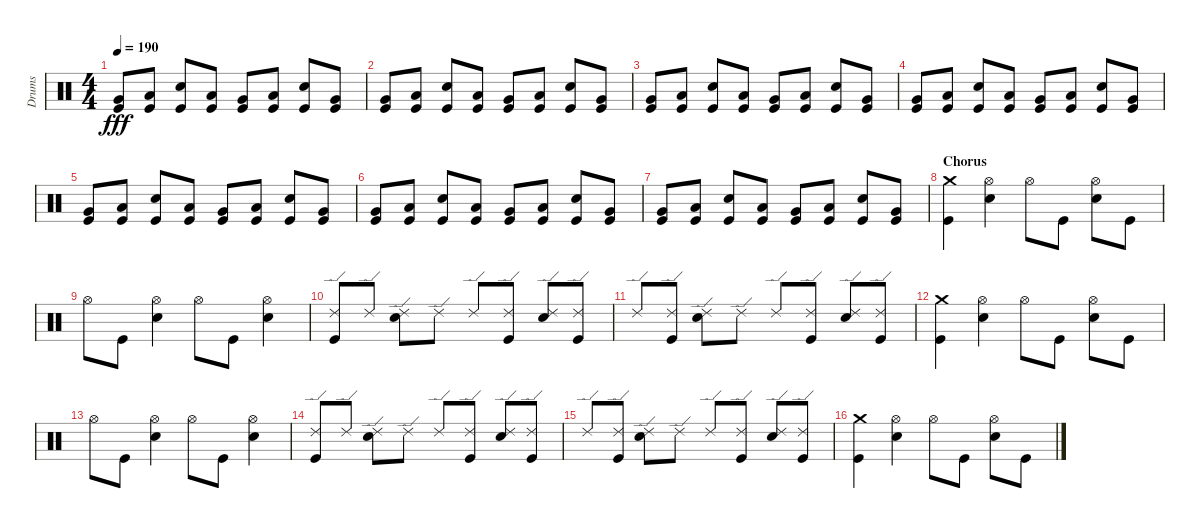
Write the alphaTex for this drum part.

\track ("Drums" "Drums") {instrument percussion}
\staff {score}
\articulation defaults
\ts (4 4)
\tempo 190
\clef neutral
\ks c
("Very Low Tom (hit)" "Kick (hit)").8{dy fff} ("Low Tom (hit)" "Kick (hit)").8 ("Snare (hit) 2" "Kick (hit)").8 ("Low Tom (hit)" "Kick (hit)").8 ("Very Low Tom (hit)" "Kick (hit)").8 ("Low Tom (hit)" "Kick (hit)").8 ("Snare (hit) 2" "Kick (hit)").8 ("Very Low Tom (hit)" "Kick (hit)").8 |
("Very Low Tom (hit)" "Kick (hit)").8 ("Low Tom (hit)" "Kick (hit)").8 ("Snare (hit) 2" "Kick (hit)").8 ("Low Tom (hit)" "Kick (hit)").8 ("Very Low Tom (hit)" "Kick (hit)").8 ("Low Tom (hit)" "Kick (hit)").8 ("Snare (hit) 2" "Kick (hit)").8 ("Very Low Tom (hit)" "Kick (hit)").8 |
("Very Low Tom (hit)" "Kick (hit)").8 ("Low Tom (hit)" "Kick (hit)").8 ("Snare (hit) 2" "Kick (hit)").8 ("Low Tom (hit)" "Kick (hit)").8 ("Very Low Tom (hit)" "Kick (hit)").8 ("Low Tom (hit)" "Kick (hit)").8 ("Snare (hit) 2" "Kick (hit)").8 ("Very Low Tom (hit)" "Kick (hit)").8 |
("Very Low Tom (hit)" "Kick (hit)").8 ("Low Tom (hit)" "Kick (hit)").8 ("Snare (hit) 2" "Kick (hit)").8 ("Low Tom (hit)" "Kick (hit)").8 ("Very Low Tom (hit)" "Kick (hit)").8 ("Low Tom (hit)" "Kick (hit)").8 ("Snare (hit) 2" "Kick (hit)").8 ("Very Low Tom (hit)" "Kick (hit)").8 |
("Very Low Tom (hit)" "Kick (hit)").8 ("Low Tom (hit)" "Kick (hit)").8 ("Snare (hit) 2" "Kick (hit)").8 ("Low Tom (hit)" "Kick (hit)").8 ("Very Low Tom (hit)" "Kick (hit)").8 ("Low Tom (hit)" "Kick (hit)").8 ("Snare (hit) 2" "Kick (hit)").8 ("Very Low Tom (hit)" "Kick (hit)").8 |
("Very Low Tom (hit)" "Kick (hit)").8 ("Low Tom (hit)" "Kick (hit)").8 ("Snare (hit) 2" "Kick (hit)").8 ("Low Tom (hit)" "Kick (hit)").8 ("Very Low Tom (hit)" "Kick (hit)").8 ("Low Tom (hit)" "Kick (hit)").8 ("Snare (hit) 2" "Kick (hit)").8 ("Very Low Tom (hit)" "Kick (hit)").8 |
("Very Low Tom (hit)" "Kick (hit)").8 ("Low Tom (hit)" "Kick (hit)").8 ("Snare (hit) 2" "Kick (hit)").8 ("Low Tom (hit)" "Kick (hit)").8 ("Very Low Tom (hit)" "Kick (hit)").8 ("Low Tom (hit)" "Kick (hit)").8 ("Snare (hit) 2" "Kick (hit)").8 ("Very Low Tom (hit)" "Kick (hit)").8 |
\section ("" "Chorus")
("Crash medium (hit)" "Kick (hit)").4 ("Hi-Hat (open)" "Snare (hit) 2").4 "Hi-Hat (open)".8 "Kick (hit)".8 ("Hi-Hat (open)" "Snare (hit) 2").8 "Kick (hit)".8 |
"Hi-Hat (open)".8 "Kick (hit)".8 ("Hi-Hat (open)" "Snare (hit) 2").4 "Hi-Hat (open)".8 "Kick (hit)".8 ("Hi-Hat (open)" "Snare (hit) 2").4 |
("Ride (edge) 2" "Kick (hit)").8 "Ride (edge) 2".8 ("Ride (edge) 2" "Snare (hit) 2").8 "Ride (edge) 2".8 "Ride (edge) 2".8 ("Ride (edge) 2" "Kick (hit)").8 ("Ride (edge) 2" "Snare (hit) 2").8 ("Ride (edge) 2" "Kick (hit)").8 |
"Ride (edge) 2".8 ("Ride (edge) 2" "Kick (hit)").8 ("Ride (edge) 2" "Snare (hit) 2").8 "Ride (edge) 2".8 "Ride (edge) 2".8 ("Ride (edge) 2" "Kick (hit)").8 ("Ride (edge) 2" "Snare (hit) 2").8 ("Ride (edge) 2" "Kick (hit)").8 |
("Crash medium (hit)" "Kick (hit)").4 ("Hi-Hat (open)" "Snare (hit) 2").4 "Hi-Hat (open)".8 "Kick (hit)".8 ("Hi-Hat (open)" "Snare (hit) 2").8 "Kick (hit)".8 |
"Hi-Hat (open)".8 "Kick (hit)".8 ("Hi-Hat (open)" "Snare (hit) 2").4 "Hi-Hat (open)".8 "Kick (hit)".8 ("Hi-Hat (open)" "Snare (hit) 2").4 |
("Ride (edge) 2" "Kick (hit)").8 "Ride (edge) 2".8 ("Ride (edge) 2" "Snare (hit) 2").8 "Ride (edge) 2".8 "Ride (edge) 2".8 ("Ride (edge) 2" "Kick (hit)").8 ("Ride (edge) 2" "Snare (hit) 2").8 ("Ride (edge) 2" "Kick (hit)").8 |
"Ride (edge) 2".8 ("Ride (edge) 2" "Kick (hit)").8 ("Ride (edge) 2" "Snare (hit) 2").8 "Ride (edge) 2".8 "Ride (edge) 2".8 ("Ride (edge) 2" "Kick (hit)").8 ("Ride (edge) 2" "Snare (hit) 2").8 ("Ride (edge) 2" "Kick (hit)").8 |
("Crash medium (hit)" "Kick (hit)").4 ("Hi-Hat (open)" "Snare (hit) 2").4 "Hi-Hat (open)".8 "Kick (hit)".8 ("Hi-Hat (open)" "Snare (hit) 2").8 "Kick (hit)".8
